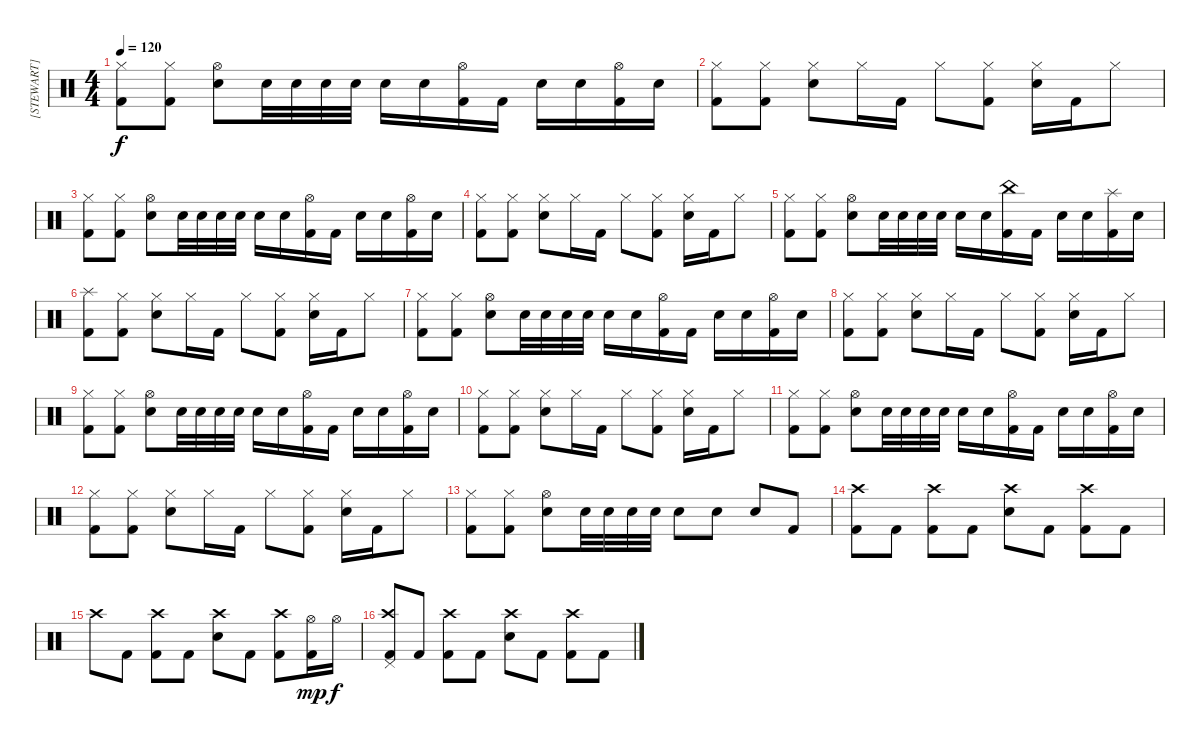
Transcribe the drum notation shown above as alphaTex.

\track ("[STEWART]" "[STEWART]") {instrument percussion}
\staff {score}
\articulation defaults
\ts (4 4)
\tempo 120
\clef neutral
\ks c
("Hi-Hat (closed)" "Kick (hit) 2").8{dy f} ("Hi-Hat (closed)" "Kick (hit) 2").8 ("Hi-Hat (open)" "Electric Snare (hit)").8 "Electric Snare (hit)".32 "Electric Snare (hit)".32 "Electric Snare (hit)".32 "Electric Snare (hit)".32 "Electric Snare (hit)".16 "Electric Snare (hit)".16 ("Hi-Hat (open)" "Kick (hit) 2").16 "Kick (hit) 2".16 "Electric Snare (hit)".16 "Electric Snare (hit)".16 ("Hi-Hat (open)" "Kick (hit) 2").16 "Electric Snare (hit)".16 |
("Hi-Hat (closed)" "Kick (hit) 2").8 ("Hi-Hat (closed)" "Kick (hit) 2").8 ("Hi-Hat (closed)" "Electric Snare (hit)").8 "Hi-Hat (closed)".16 "Kick (hit) 2".16 "Hi-Hat (closed)".8 ("Hi-Hat (closed)" "Kick (hit) 2").8 ("Hi-Hat (closed)" "Electric Snare (hit)").16 "Kick (hit) 2".16 "Hi-Hat (closed)".8 |
("Hi-Hat (closed)" "Kick (hit) 2").8 ("Hi-Hat (closed)" "Kick (hit) 2").8 ("Hi-Hat (open)" "Electric Snare (hit)").8 "Electric Snare (hit)".32 "Electric Snare (hit)".32 "Electric Snare (hit)".32 "Electric Snare (hit)".32 "Electric Snare (hit)".16 "Electric Snare (hit)".16 ("Hi-Hat (open)" "Kick (hit) 2").16 "Kick (hit) 2".16 "Electric Snare (hit)".16 "Electric Snare (hit)".16 ("Hi-Hat (open)" "Kick (hit) 2").16 "Electric Snare (hit)".16 |
("Hi-Hat (closed)" "Kick (hit) 2").8 ("Hi-Hat (closed)" "Kick (hit) 2").8 ("Hi-Hat (closed)" "Electric Snare (hit)").8 "Hi-Hat (closed)".16 "Kick (hit) 2".16 "Hi-Hat (closed)".8 ("Hi-Hat (closed)" "Kick (hit) 2").8 ("Hi-Hat (closed)" "Electric Snare (hit)").16 "Kick (hit) 2".16 "Hi-Hat (closed)".8 |
("Hi-Hat (closed)" "Kick (hit) 2").8 ("Hi-Hat (closed)" "Kick (hit) 2").8 ("Hi-Hat (open)" "Electric Snare (hit)").8 "Electric Snare (hit)".32 "Electric Snare (hit)".32 "Electric Snare (hit)".32 "Electric Snare (hit)".32 "Electric Snare (hit)".16 "Electric Snare (hit)".16 ("China (hit)" "Kick (hit) 2").16 "Kick (hit) 2".16 "Electric Snare (hit)".16 "Electric Snare (hit)".16 ("Splash (hit)" "Kick (hit) 2").16 "Electric Snare (hit)".16 |
("Splash (hit)" "Kick (hit) 2").8 ("Hi-Hat (closed)" "Kick (hit) 2").8 ("Hi-Hat (closed)" "Electric Snare (hit)").8 "Hi-Hat (closed)".16 "Kick (hit) 2".16 "Hi-Hat (closed)".8 ("Hi-Hat (closed)" "Kick (hit) 2").8 ("Hi-Hat (closed)" "Electric Snare (hit)").16 "Kick (hit) 2".16 "Hi-Hat (closed)".8 |
("Hi-Hat (closed)" "Kick (hit) 2").8 ("Hi-Hat (closed)" "Kick (hit) 2").8 ("Hi-Hat (open)" "Electric Snare (hit)").8 "Electric Snare (hit)".32 "Electric Snare (hit)".32 "Electric Snare (hit)".32 "Electric Snare (hit)".32 "Electric Snare (hit)".16 "Electric Snare (hit)".16 ("Hi-Hat (open)" "Kick (hit) 2").16 "Kick (hit) 2".16 "Electric Snare (hit)".16 "Electric Snare (hit)".16 ("Hi-Hat (open)" "Kick (hit) 2").16 "Electric Snare (hit)".16 |
("Hi-Hat (closed)" "Kick (hit) 2").8 ("Hi-Hat (closed)" "Kick (hit) 2").8 ("Hi-Hat (closed)" "Electric Snare (hit)").8 "Hi-Hat (closed)".16 "Kick (hit) 2".16 "Hi-Hat (closed)".8 ("Hi-Hat (closed)" "Kick (hit) 2").8 ("Hi-Hat (closed)" "Electric Snare (hit)").16 "Kick (hit) 2".16 "Hi-Hat (closed)".8 |
("Hi-Hat (closed)" "Kick (hit) 2").8 ("Hi-Hat (closed)" "Kick (hit) 2").8 ("Hi-Hat (open)" "Electric Snare (hit)").8 "Electric Snare (hit)".32 "Electric Snare (hit)".32 "Electric Snare (hit)".32 "Electric Snare (hit)".32 "Electric Snare (hit)".16 "Electric Snare (hit)".16 ("Hi-Hat (open)" "Kick (hit) 2").16 "Kick (hit) 2".16 "Electric Snare (hit)".16 "Electric Snare (hit)".16 ("Hi-Hat (open)" "Kick (hit) 2").16 "Electric Snare (hit)".16 |
("Hi-Hat (closed)" "Kick (hit) 2").8 ("Hi-Hat (closed)" "Kick (hit) 2").8 ("Hi-Hat (closed)" "Electric Snare (hit)").8 "Hi-Hat (closed)".16 "Kick (hit) 2".16 "Hi-Hat (closed)".8 ("Hi-Hat (closed)" "Kick (hit) 2").8 ("Hi-Hat (closed)" "Electric Snare (hit)").16 "Kick (hit) 2".16 "Hi-Hat (closed)".8 |
("Hi-Hat (closed)" "Kick (hit) 2").8 ("Hi-Hat (closed)" "Kick (hit) 2").8 ("Hi-Hat (open)" "Electric Snare (hit)").8 "Electric Snare (hit)".32 "Electric Snare (hit)".32 "Electric Snare (hit)".32 "Electric Snare (hit)".32 "Electric Snare (hit)".16 "Electric Snare (hit)".16 ("Hi-Hat (open)" "Kick (hit) 2").16 "Kick (hit) 2".16 "Electric Snare (hit)".16 "Electric Snare (hit)".16 ("Hi-Hat (open)" "Kick (hit) 2").16 "Electric Snare (hit)".16 |
("Hi-Hat (closed)" "Kick (hit) 2").8 ("Hi-Hat (closed)" "Kick (hit) 2").8 ("Hi-Hat (closed)" "Electric Snare (hit)").8 "Hi-Hat (closed)".16 "Kick (hit) 2".16 "Hi-Hat (closed)".8 ("Hi-Hat (closed)" "Kick (hit) 2").8 ("Hi-Hat (closed)" "Electric Snare (hit)").16 "Kick (hit) 2".16 "Hi-Hat (closed)".8 |
("Hi-Hat (closed)" "Kick (hit) 2").8 ("Hi-Hat (closed)" "Kick (hit) 2").8 ("Hi-Hat (open)" "Electric Snare (hit)").8 "Electric Snare (hit)".32 "Electric Snare (hit)".32 "Electric Snare (hit)".32 "Electric Snare (hit)".32 "Electric Snare (hit)".8 "Electric Snare (hit)".8 "Electric Snare (hit)".8 "Kick (hit) 2".8 |
("Crash high (hit)" "Kick (hit) 2").8 "Kick (hit) 2".8 ("Crash high (hit)" "Kick (hit) 2").8 "Kick (hit) 2".8 ("Crash high (hit)" "Electric Snare (hit)").8 "Kick (hit) 2".8 ("Crash high (hit)" "Kick (hit) 2").8 "Kick (hit) 2".8 |
"Crash high (hit)".8 "Kick (hit) 2".8 ("Crash high (hit)" "Kick (hit) 2").8 "Kick (hit) 2".8 ("Crash high (hit)" "Electric Snare (hit)").8 "Kick (hit) 2".8 ("Crash high (hit)" "Kick (hit) 2").8 ("Hi-Hat (open)" "Kick (hit) 2").16{dy mp} "Hi-Hat (open)".16{dy f} |
("Crash high (hit)" "Pedal Hi-Hat (hit)" "Kick (hit) 2").8 "Kick (hit) 2".8 ("Crash high (hit)" "Kick (hit) 2").8 "Kick (hit) 2".8 ("Crash high (hit)" "Electric Snare (hit)").8 "Kick (hit) 2".8 ("Crash high (hit)" "Kick (hit) 2").8 "Kick (hit) 2".8
